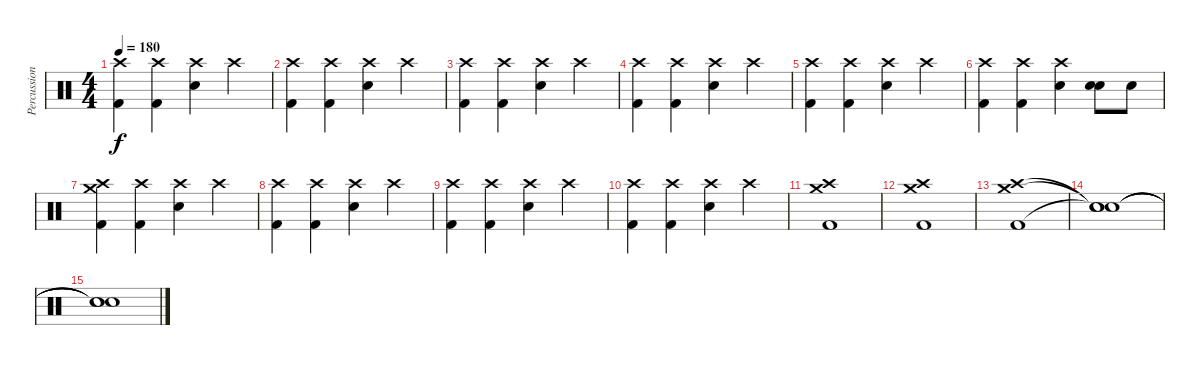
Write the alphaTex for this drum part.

\track ("Percussion" "Percussion") {instrument percussion}
\staff {score}
\articulation defaults
\ts (4 4)
\tempo 180
\clef neutral
\ks c
("Crash high (hit)" "Kick (hit) 2").4{dy f} ("Crash high (hit)" "Kick (hit) 2").4 ("Crash high (hit)" "Electric Snare (hit)").4 "Crash high (hit)".4 |
("Crash high (hit)" "Kick (hit) 2").4 ("Crash high (hit)" "Kick (hit) 2").4 ("Crash high (hit)" "Electric Snare (hit)").4 "Crash high (hit)".4 |
("Crash high (hit)" "Kick (hit) 2").4 ("Crash high (hit)" "Kick (hit) 2").4 ("Crash high (hit)" "Electric Snare (hit)").4 "Crash high (hit)".4 |
("Crash high (hit)" "Kick (hit) 2").4 ("Crash high (hit)" "Kick (hit) 2").4 ("Crash high (hit)" "Electric Snare (hit)").4 "Crash high (hit)".4 |
("Crash high (hit)" "Kick (hit) 2").4 ("Crash high (hit)" "Kick (hit) 2").4 ("Crash high (hit)" "Electric Snare (hit)").4 "Crash high (hit)".4 |
("Crash high (hit)" "Kick (hit) 2").4 ("Crash high (hit)" "Kick (hit) 2").4 ("Crash high (hit)" "Electric Snare (hit)").4 ("Snare (hit)" "Electric Snare (hit)").8 "Electric Snare (hit)".8 |
("Crash medium (hit)" "Crash high (hit)" "Kick (hit) 2").4 ("Crash high (hit)" "Kick (hit) 2").4 ("Crash high (hit)" "Electric Snare (hit)").4 "Crash high (hit)".4 |
("Crash high (hit)" "Kick (hit) 2").4 ("Crash high (hit)" "Kick (hit) 2").4 ("Crash high (hit)" "Electric Snare (hit)").4 "Crash high (hit)".4 |
("Crash high (hit)" "Kick (hit) 2").4 ("Crash high (hit)" "Kick (hit) 2").4 ("Crash high (hit)" "Electric Snare (hit)").4 "Crash high (hit)".4 |
("Crash high (hit)" "Kick (hit) 2").4 ("Crash high (hit)" "Kick (hit) 2").4 ("Crash high (hit)" "Electric Snare (hit)").4 "Crash high (hit)".4 |
("Crash medium (hit)" "Crash high (hit)" "Kick (hit) 2").1 |
("Crash medium (hit)" "Crash high (hit)" "Kick (hit) 2").1 |
("Crash medium (hit)" "Crash high (hit)" "Kick (hit) 2").1 |
("Snare (hit)"{t} "Snare (hit)"{t} "Snare (hit)"{t}).1 |
("Snare (hit)"{t} "Snare (hit)"{t} "Snare (hit)"{t}).1
